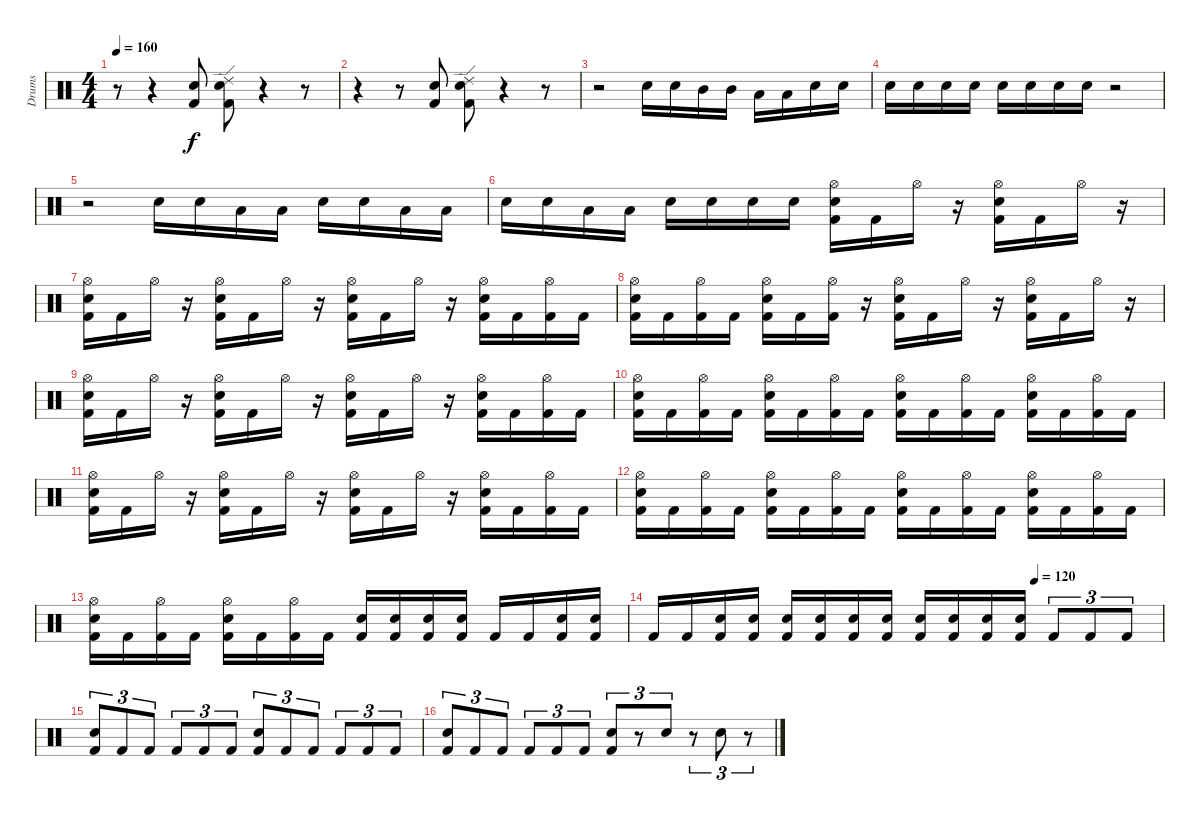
\track ("Drums" "Drums") {instrument percussion}
\staff {score}
\articulation defaults
\ts (4 4)
\tempo 160
\clef neutral
\ks c
r.8{dy f} r.4 ("Electric Snare (hit)" "Kick (hit) 2").8 ("Ride (edge) 2" "Electric Snare (hit)" "Kick (hit) 2").8 r.4 r.8 |
r.4 r.8 ("Electric Snare (hit)" "Kick (hit) 2").8 ("Ride (edge) 2" "Electric Snare (hit)" "Kick (hit) 2").8 r.4 r.8 |
r.2 "Electric Snare (hit)".16 "Electric Snare (hit)".16 "Mid Tom (hit)".16 "Mid Tom (hit)".16 "Low Tom (hit)".16 "Low Tom (hit)".16 "Electric Snare (hit)".16 "Electric Snare (hit)".16 |
"Electric Snare (hit)".16 "Electric Snare (hit)".16 "Electric Snare (hit)".16 "Electric Snare (hit)".16 "Electric Snare (hit)".16 "Electric Snare (hit)".16 "Electric Snare (hit)".16 "Electric Snare (hit)".16 r.2 |
r.2 "Electric Snare (hit)".16 "Electric Snare (hit)".16 "Low Tom (hit)".16 "Low Tom (hit)".16 "Electric Snare (hit)".16 "Electric Snare (hit)".16 "Low Tom (hit)".16 "Low Tom (hit)".16 |
"Electric Snare (hit)".16 "Electric Snare (hit)".16 "Low Tom (hit)".16 "Low Tom (hit)".16 "Electric Snare (hit)".16 "Electric Snare (hit)".16 "Electric Snare (hit)".16 "Electric Snare (hit)".16 ("Hi-Hat (open)" "Electric Snare (hit)" "Kick (hit) 2").16 "Kick (hit) 2".16 "Hi-Hat (open)".16 r.16 ("Hi-Hat (open)" "Electric Snare (hit)" "Kick (hit) 2").16 "Kick (hit) 2".16 "Hi-Hat (open)".16 r.16 |
("Hi-Hat (open)" "Electric Snare (hit)" "Kick (hit) 2").16 "Kick (hit) 2".16 "Hi-Hat (open)".16 r.16 ("Hi-Hat (open)" "Electric Snare (hit)" "Kick (hit) 2").16 "Kick (hit) 2".16 "Hi-Hat (open)".16 r.16 ("Hi-Hat (open)" "Electric Snare (hit)" "Kick (hit) 2").16 "Kick (hit) 2".16 "Hi-Hat (open)".16 r.16 ("Hi-Hat (open)" "Electric Snare (hit)" "Kick (hit) 2").16 "Kick (hit) 2".16 ("Hi-Hat (open)" "Kick (hit) 2").16 "Kick (hit) 2".16 |
("Hi-Hat (open)" "Electric Snare (hit)" "Kick (hit) 2").16 "Kick (hit) 2".16 ("Hi-Hat (open)" "Kick (hit) 2").16 "Kick (hit) 2".16 ("Hi-Hat (open)" "Electric Snare (hit)" "Kick (hit) 2").16 "Kick (hit) 2".16 ("Hi-Hat (open)" "Kick (hit) 2").16 r.16 ("Hi-Hat (open)" "Electric Snare (hit)" "Kick (hit) 2").16 "Kick (hit) 2".16 "Hi-Hat (open)".16 r.16 ("Hi-Hat (open)" "Electric Snare (hit)" "Kick (hit) 2").16 "Kick (hit) 2".16 "Hi-Hat (open)".16 r.16 |
("Hi-Hat (open)" "Electric Snare (hit)" "Kick (hit) 2").16 "Kick (hit) 2".16 "Hi-Hat (open)".16 r.16 ("Hi-Hat (open)" "Electric Snare (hit)" "Kick (hit) 2").16 "Kick (hit) 2".16 "Hi-Hat (open)".16 r.16 ("Hi-Hat (open)" "Electric Snare (hit)" "Kick (hit) 2").16 "Kick (hit) 2".16 "Hi-Hat (open)".16 r.16 ("Hi-Hat (open)" "Electric Snare (hit)" "Kick (hit) 2").16 "Kick (hit) 2".16 ("Hi-Hat (open)" "Kick (hit) 2").16 "Kick (hit) 2".16 |
("Hi-Hat (open)" "Electric Snare (hit)" "Kick (hit) 2").16 "Kick (hit) 2".16 ("Hi-Hat (open)" "Kick (hit) 2").16 "Kick (hit) 2".16 ("Hi-Hat (open)" "Electric Snare (hit)" "Kick (hit) 2").16 "Kick (hit) 2".16 ("Hi-Hat (open)" "Kick (hit) 2").16 "Kick (hit) 2".16 ("Hi-Hat (open)" "Electric Snare (hit)" "Kick (hit) 2").16 "Kick (hit) 2".16 ("Hi-Hat (open)" "Kick (hit) 2").16 "Kick (hit) 2".16 ("Hi-Hat (open)" "Electric Snare (hit)" "Kick (hit) 2").16 "Kick (hit) 2".16 ("Hi-Hat (open)" "Kick (hit) 2").16 "Kick (hit) 2".16 |
("Hi-Hat (open)" "Electric Snare (hit)" "Kick (hit) 2").16 "Kick (hit) 2".16 "Hi-Hat (open)".16 r.16 ("Hi-Hat (open)" "Electric Snare (hit)" "Kick (hit) 2").16 "Kick (hit) 2".16 "Hi-Hat (open)".16 r.16 ("Hi-Hat (open)" "Electric Snare (hit)" "Kick (hit) 2").16 "Kick (hit) 2".16 "Hi-Hat (open)".16 r.16 ("Hi-Hat (open)" "Electric Snare (hit)" "Kick (hit) 2").16 "Kick (hit) 2".16 ("Hi-Hat (open)" "Kick (hit) 2").16 "Kick (hit) 2".16 |
("Hi-Hat (open)" "Electric Snare (hit)" "Kick (hit) 2").16 "Kick (hit) 2".16 ("Hi-Hat (open)" "Kick (hit) 2").16 "Kick (hit) 2".16 ("Hi-Hat (open)" "Electric Snare (hit)" "Kick (hit) 2").16 "Kick (hit) 2".16 ("Hi-Hat (open)" "Kick (hit) 2").16 "Kick (hit) 2".16 ("Hi-Hat (open)" "Electric Snare (hit)" "Kick (hit) 2").16 "Kick (hit) 2".16 ("Hi-Hat (open)" "Kick (hit) 2").16 "Kick (hit) 2".16 ("Hi-Hat (open)" "Electric Snare (hit)" "Kick (hit) 2").16 "Kick (hit) 2".16 ("Hi-Hat (open)" "Kick (hit) 2").16 "Kick (hit) 2".16 |
("Hi-Hat (open)" "Electric Snare (hit)" "Kick (hit) 2").16 "Kick (hit) 2".16 ("Hi-Hat (open)" "Kick (hit) 2").16 "Kick (hit) 2".16 ("Hi-Hat (open)" "Electric Snare (hit)" "Kick (hit) 2").16 "Kick (hit) 2".16 ("Hi-Hat (open)" "Kick (hit) 2").16 "Kick (hit) 2".16 ("Electric Snare (hit)" "Kick (hit) 2").16 ("Electric Snare (hit)" "Kick (hit) 2").16 ("Electric Snare (hit)" "Kick (hit) 2").16 ("Electric Snare (hit)" "Kick (hit) 2").16 "Kick (hit) 2".16 "Kick (hit) 2".16 ("Electric Snare (hit)" "Kick (hit) 2").16 ("Electric Snare (hit)" "Kick (hit) 2").16 |
\tempo (120 0.75)
"Kick (hit) 2".16 "Kick (hit) 2".16 ("Electric Snare (hit)" "Kick (hit) 2").16 ("Electric Snare (hit)" "Kick (hit) 2").16 ("Electric Snare (hit)" "Kick (hit) 2").16 ("Electric Snare (hit)" "Kick (hit) 2").16 ("Electric Snare (hit)" "Kick (hit) 2").16 ("Electric Snare (hit)" "Kick (hit) 2").16 ("Electric Snare (hit)" "Kick (hit) 2").16 ("Electric Snare (hit)" "Kick (hit) 2").16 ("Electric Snare (hit)" "Kick (hit) 2").16 ("Electric Snare (hit)" "Kick (hit) 2").16 "Kick (hit) 2".8{tu (3 2)} "Kick (hit) 2".8{tu (3 2)} "Kick (hit) 2".8{tu (3 2)} |
("Electric Snare (hit)" "Kick (hit) 2").8{tu (3 2)} "Kick (hit) 2".8{tu (3 2)} "Kick (hit) 2".8{tu (3 2)} "Kick (hit) 2".8{tu (3 2)} "Kick (hit) 2".8{tu (3 2)} "Kick (hit) 2".8{tu (3 2)} ("Electric Snare (hit)" "Kick (hit) 2").8{tu (3 2)} "Kick (hit) 2".8{tu (3 2)} "Kick (hit) 2".8{tu (3 2)} "Kick (hit) 2".8{tu (3 2)} "Kick (hit) 2".8{tu (3 2)} "Kick (hit) 2".8{tu (3 2)} |
("Electric Snare (hit)" "Kick (hit) 2").8{tu (3 2)} "Kick (hit) 2".8{tu (3 2)} "Kick (hit) 2".8{tu (3 2)} "Kick (hit) 2".8{tu (3 2)} "Kick (hit) 2".8{tu (3 2)} "Kick (hit) 2".8{tu (3 2)} ("Electric Snare (hit)" "Kick (hit) 2").8{tu (3 2)} r.8{tu (3 2)} "Electric Snare (hit)".8{tu (3 2)} r.8{tu (3 2)} "Electric Snare (hit)".8{tu (3 2)} r.8{tu (3 2)}
